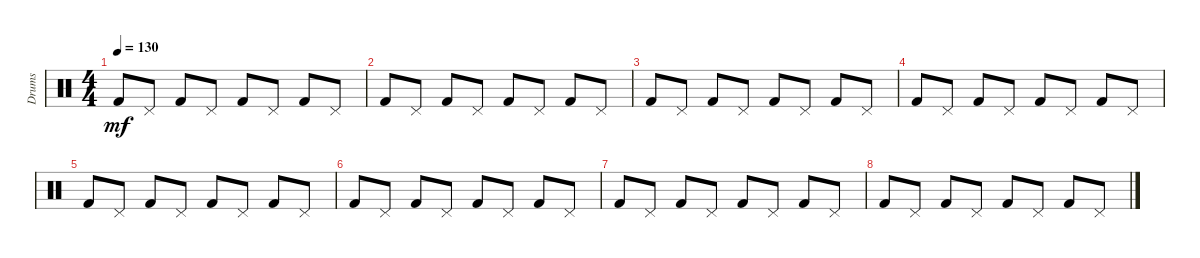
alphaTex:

\track ("Drums" "Drums") {instrument percussion}
\staff {score}
\articulation defaults
\ts (4 4)
\tempo 130
\clef neutral
\ks c "Kick (hit) 2".8{dy mf} "Pedal Hi-Hat (hit)".8 "Kick (hit) 2".8 "Pedal Hi-Hat (hit)".8 "Kick (hit) 2".8 "Pedal Hi-Hat (hit)".8 "Kick (hit) 2".8 "Pedal Hi-Hat (hit)".8
|
"Kick (hit) 2".8 "Pedal Hi-Hat (hit)".8 "Kick (hit) 2".8 "Pedal Hi-Hat (hit)".8 "Kick (hit) 2".8 "Pedal Hi-Hat (hit)".8 "Kick (hit) 2".8 "Pedal Hi-Hat (hit)".8 |
"Kick (hit) 2".8 "Pedal Hi-Hat (hit)".8 "Kick (hit) 2".8 "Pedal Hi-Hat (hit)".8 "Kick (hit) 2".8 "Pedal Hi-Hat (hit)".8 "Kick (hit) 2".8 "Pedal Hi-Hat (hit)".8 |
"Kick (hit) 2".8 "Pedal Hi-Hat (hit)".8 "Kick (hit) 2".8 "Pedal Hi-Hat (hit)".8 "Kick (hit) 2".8 "Pedal Hi-Hat (hit)".8 "Kick (hit) 2".8 "Pedal Hi-Hat (hit)".8 |
"Kick (hit) 2".8 "Pedal Hi-Hat (hit)".8 "Kick (hit) 2".8 "Pedal Hi-Hat (hit)".8 "Kick (hit) 2".8 "Pedal Hi-Hat (hit)".8 "Kick (hit) 2".8 "Pedal Hi-Hat (hit)".8 |
"Kick (hit) 2".8 "Pedal Hi-Hat (hit)".8 "Kick (hit) 2".8 "Pedal Hi-Hat (hit)".8 "Kick (hit) 2".8 "Pedal Hi-Hat (hit)".8 "Kick (hit) 2".8 "Pedal Hi-Hat (hit)".8 |
"Kick (hit) 2".8 "Pedal Hi-Hat (hit)".8 "Kick (hit) 2".8 "Pedal Hi-Hat (hit)".8 "Kick (hit) 2".8 "Pedal Hi-Hat (hit)".8 "Kick (hit) 2".8 "Pedal Hi-Hat (hit)".8 |
"Kick (hit) 2".8 "Pedal Hi-Hat (hit)".8 "Kick (hit) 2".8 "Pedal Hi-Hat (hit)".8 "Kick (hit) 2".8 "Pedal Hi-Hat (hit)".8 "Kick (hit) 2".8 "Pedal Hi-Hat (hit)".8
